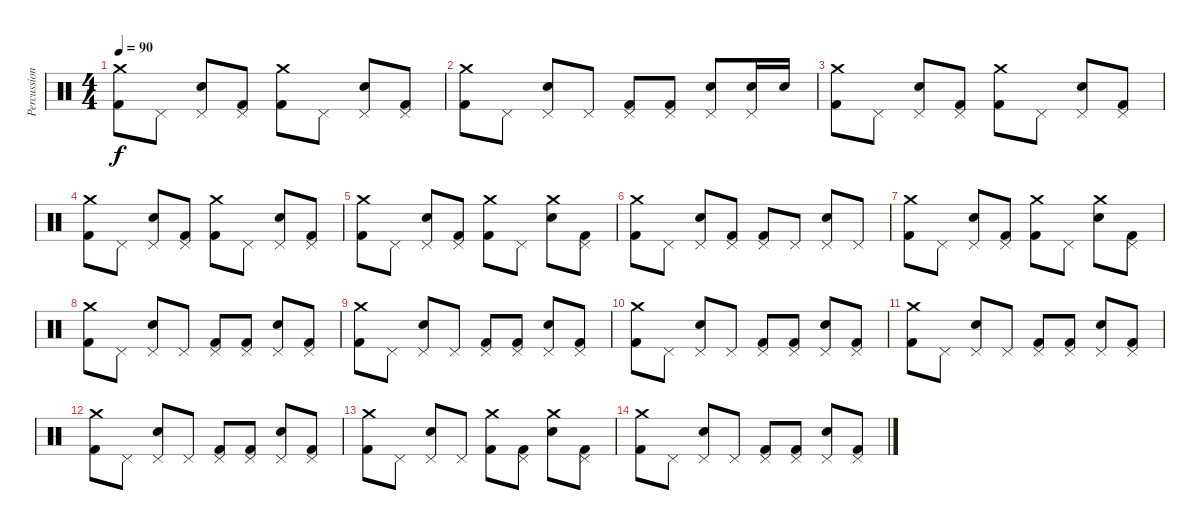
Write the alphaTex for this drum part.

\track ("Percussion" "Percussion") {instrument percussion}
\staff {score}
\articulation defaults
\ts (4 4)
\tempo 90
\clef neutral
\ks c
("Crash medium (hit)" "Kick (hit) 2").8{dy f} "Pedal Hi-Hat (hit)".8 ("Pedal Hi-Hat (hit)" "Snare (hit) 2").8 ("Pedal Hi-Hat (hit)" "Kick (hit) 2").8 ("Crash medium (hit)" "Kick (hit) 2").8 "Pedal Hi-Hat (hit)".8 ("Pedal Hi-Hat (hit)" "Snare (hit) 2").8 ("Pedal Hi-Hat (hit)" "Kick (hit) 2").8 |
("Crash medium (hit)" "Kick (hit) 2").8 "Pedal Hi-Hat (hit)".8 ("Pedal Hi-Hat (hit)" "Snare (hit) 2").8 "Pedal Hi-Hat (hit)".8 ("Pedal Hi-Hat (hit)" "Kick (hit) 2").8 ("Pedal Hi-Hat (hit)" "Kick (hit) 2").8 ("Pedal Hi-Hat (hit)" "Snare (hit) 2").8 ("Pedal Hi-Hat (hit)" "Snare (hit) 2").16 "Snare (hit) 2".16 |
("Crash medium (hit)" "Kick (hit) 2").8 "Pedal Hi-Hat (hit)".8 ("Pedal Hi-Hat (hit)" "Snare (hit) 2").8 ("Pedal Hi-Hat (hit)" "Kick (hit) 2").8 ("Crash medium (hit)" "Kick (hit) 2").8 "Pedal Hi-Hat (hit)".8 ("Pedal Hi-Hat (hit)" "Snare (hit) 2").8 ("Pedal Hi-Hat (hit)" "Kick (hit) 2").8 |
("Crash medium (hit)" "Kick (hit) 2").8 "Pedal Hi-Hat (hit)".8 ("Pedal Hi-Hat (hit)" "Snare (hit) 2").8 ("Pedal Hi-Hat (hit)" "Kick (hit) 2").8 ("Crash medium (hit)" "Kick (hit) 2").8 "Pedal Hi-Hat (hit)".8 ("Pedal Hi-Hat (hit)" "Snare (hit) 2").8 ("Pedal Hi-Hat (hit)" "Kick (hit) 2").8 |
("Crash medium (hit)" "Kick (hit) 2").8 "Pedal Hi-Hat (hit)".8 ("Pedal Hi-Hat (hit)" "Snare (hit) 2").8 ("Pedal Hi-Hat (hit)" "Kick (hit) 2").8 ("Crash medium (hit)" "Kick (hit) 2").8 "Pedal Hi-Hat (hit)".8 ("Crash medium (hit)" "Snare (hit) 2").8 ("Pedal Hi-Hat (hit)" "Kick (hit) 2").8 |
("Crash medium (hit)" "Kick (hit) 2").8 "Pedal Hi-Hat (hit)".8 ("Pedal Hi-Hat (hit)" "Snare (hit) 2").8 ("Pedal Hi-Hat (hit)" "Kick (hit) 2").8 ("Pedal Hi-Hat (hit)" "Kick (hit) 2").8 "Pedal Hi-Hat (hit)".8 ("Pedal Hi-Hat (hit)" "Snare (hit) 2").8 "Pedal Hi-Hat (hit)".8 |
("Crash medium (hit)" "Kick (hit) 2").8 "Pedal Hi-Hat (hit)".8 ("Pedal Hi-Hat (hit)" "Snare (hit) 2").8 ("Pedal Hi-Hat (hit)" "Kick (hit) 2").8 ("Crash medium (hit)" "Kick (hit) 2").8 "Pedal Hi-Hat (hit)".8 ("Crash medium (hit)" "Snare (hit) 2").8 ("Pedal Hi-Hat (hit)" "Kick (hit) 2").8 |
("Crash medium (hit)" "Kick (hit) 2").8 "Pedal Hi-Hat (hit)".8 ("Pedal Hi-Hat (hit)" "Snare (hit) 2").8 "Pedal Hi-Hat (hit)".8 ("Pedal Hi-Hat (hit)" "Kick (hit) 2").8 ("Pedal Hi-Hat (hit)" "Kick (hit) 2").8 ("Pedal Hi-Hat (hit)" "Snare (hit) 2").8 ("Pedal Hi-Hat (hit)" "Kick (hit) 2").8 |
("Crash medium (hit)" "Kick (hit) 2").8 "Pedal Hi-Hat (hit)".8 ("Pedal Hi-Hat (hit)" "Snare (hit) 2").8 "Pedal Hi-Hat (hit)".8 ("Pedal Hi-Hat (hit)" "Kick (hit) 2").8 ("Pedal Hi-Hat (hit)" "Kick (hit) 2").8 ("Pedal Hi-Hat (hit)" "Snare (hit) 2").8 ("Pedal Hi-Hat (hit)" "Kick (hit) 2").8 |
("Crash medium (hit)" "Kick (hit) 2").8 "Pedal Hi-Hat (hit)".8 ("Pedal Hi-Hat (hit)" "Snare (hit) 2").8 "Pedal Hi-Hat (hit)".8 ("Pedal Hi-Hat (hit)" "Kick (hit) 2").8 ("Pedal Hi-Hat (hit)" "Kick (hit) 2").8 ("Pedal Hi-Hat (hit)" "Snare (hit) 2").8 ("Pedal Hi-Hat (hit)" "Kick (hit) 2").8 |
("Crash medium (hit)" "Kick (hit) 2").8 "Pedal Hi-Hat (hit)".8 ("Pedal Hi-Hat (hit)" "Snare (hit) 2").8 "Pedal Hi-Hat (hit)".8 ("Pedal Hi-Hat (hit)" "Kick (hit) 2").8 ("Pedal Hi-Hat (hit)" "Kick (hit) 2").8 ("Pedal Hi-Hat (hit)" "Snare (hit) 2").8 ("Pedal Hi-Hat (hit)" "Kick (hit) 2").8 |
("Crash medium (hit)" "Kick (hit) 2").8 "Pedal Hi-Hat (hit)".8 ("Pedal Hi-Hat (hit)" "Snare (hit) 2").8 "Pedal Hi-Hat (hit)".8 ("Pedal Hi-Hat (hit)" "Kick (hit) 2").8 ("Pedal Hi-Hat (hit)" "Kick (hit) 2").8 ("Pedal Hi-Hat (hit)" "Snare (hit) 2").8 ("Pedal Hi-Hat (hit)" "Kick (hit) 2").8 |
("Crash medium (hit)" "Kick (hit) 2").8 "Pedal Hi-Hat (hit)".8 ("Pedal Hi-Hat (hit)" "Snare (hit) 2").8 "Pedal Hi-Hat (hit)".8 ("Crash medium (hit)" "Kick (hit) 2").8 ("Pedal Hi-Hat (hit)" "Kick (hit) 2").8 ("Crash medium (hit)" "Snare (hit) 2").8 ("Pedal Hi-Hat (hit)" "Kick (hit) 2").8 |
("Crash medium (hit)" "Kick (hit) 2").8 "Pedal Hi-Hat (hit)".8 ("Pedal Hi-Hat (hit)" "Snare (hit) 2").8 "Pedal Hi-Hat (hit)".8 ("Pedal Hi-Hat (hit)" "Kick (hit) 2").8 ("Pedal Hi-Hat (hit)" "Kick (hit) 2").8 ("Pedal Hi-Hat (hit)" "Snare (hit) 2").8 ("Pedal Hi-Hat (hit)" "Kick (hit) 2").8
